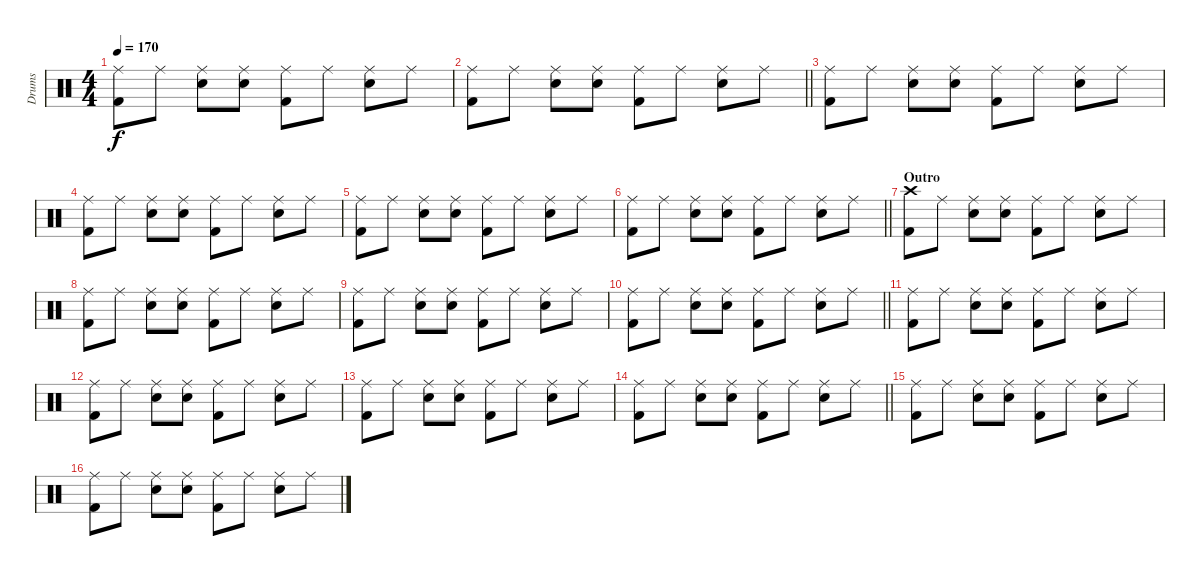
\track ("Drums" "Drums") {instrument percussion}
\staff {score}
\articulation defaults
\ts (4 4)
\tempo 170
\clef neutral
\ks c
("Ride (middle)" "Kick (hit) 2").8{dy f} "Ride (middle)".8 ("Ride (middle)" "Snare (hit) 2").8 ("Ride (middle)" "Snare (hit) 2").8 ("Ride (middle)" "Kick (hit) 2").8 "Ride (middle)".8 ("Ride (middle)" "Snare (hit) 2").8 "Ride (middle)".8 |
\barLineRight lightlight
("Ride (middle)" "Kick (hit) 2").8 "Ride (middle)".8 ("Ride (middle)" "Snare (hit) 2").8 ("Ride (middle)" "Snare (hit) 2").8 ("Ride (middle)" "Kick (hit) 2").8 "Ride (middle)".8 ("Ride (middle)" "Snare (hit) 2").8 "Ride (middle)".8 |
("Ride (middle)" "Kick (hit) 2").8 "Ride (middle)".8 ("Ride (middle)" "Snare (hit) 2").8 ("Ride (middle)" "Snare (hit) 2").8 ("Ride (middle)" "Kick (hit) 2").8 "Ride (middle)".8 ("Ride (middle)" "Snare (hit) 2").8 "Ride (middle)".8 |
("Ride (middle)" "Kick (hit) 2").8 "Ride (middle)".8 ("Ride (middle)" "Snare (hit) 2").8 ("Ride (middle)" "Snare (hit) 2").8 ("Ride (middle)" "Kick (hit) 2").8 "Ride (middle)".8 ("Ride (middle)" "Snare (hit) 2").8 "Ride (middle)".8 |
("Ride (middle)" "Kick (hit) 2").8 "Ride (middle)".8 ("Ride (middle)" "Snare (hit) 2").8 ("Ride (middle)" "Snare (hit) 2").8 ("Ride (middle)" "Kick (hit) 2").8 "Ride (middle)".8 ("Ride (middle)" "Snare (hit) 2").8 "Ride (middle)".8 |
\barLineRight lightlight
("Ride (middle)" "Kick (hit) 2").8 "Ride (middle)".8 ("Ride (middle)" "Snare (hit) 2").8 ("Ride (middle)" "Snare (hit) 2").8 ("Ride (middle)" "Kick (hit) 2").8 "Ride (middle)".8 ("Ride (middle)" "Snare (hit) 2").8 "Ride (middle)".8 |
\section ("" "Outro")
("Crash high (hit)" "Kick (hit) 2").8 "Ride (middle)".8 ("Ride (middle)" "Snare (hit) 2").8 ("Ride (middle)" "Snare (hit) 2").8 ("Ride (middle)" "Kick (hit) 2").8 "Ride (middle)".8 ("Ride (middle)" "Snare (hit) 2").8 "Ride (middle)".8 |
("Ride (middle)" "Kick (hit) 2").8 "Ride (middle)".8 ("Ride (middle)" "Snare (hit) 2").8 ("Ride (middle)" "Snare (hit) 2").8 ("Ride (middle)" "Kick (hit) 2").8 "Ride (middle)".8 ("Ride (middle)" "Snare (hit) 2").8 "Ride (middle)".8 |
("Ride (middle)" "Kick (hit) 2").8 "Ride (middle)".8 ("Ride (middle)" "Snare (hit) 2").8 ("Ride (middle)" "Snare (hit) 2").8 ("Ride (middle)" "Kick (hit) 2").8 "Ride (middle)".8 ("Ride (middle)" "Snare (hit) 2").8 "Ride (middle)".8 |
\barLineRight lightlight
("Ride (middle)" "Kick (hit) 2").8 "Ride (middle)".8 ("Ride (middle)" "Snare (hit) 2").8 ("Ride (middle)" "Snare (hit) 2").8 ("Ride (middle)" "Kick (hit) 2").8 "Ride (middle)".8 ("Ride (middle)" "Snare (hit) 2").8 "Ride (middle)".8 |
("Ride (middle)" "Kick (hit) 2").8 "Ride (middle)".8 ("Ride (middle)" "Snare (hit) 2").8 ("Ride (middle)" "Snare (hit) 2").8 ("Ride (middle)" "Kick (hit) 2").8 "Ride (middle)".8 ("Ride (middle)" "Snare (hit) 2").8 "Ride (middle)".8 |
("Ride (middle)" "Kick (hit) 2").8 "Ride (middle)".8 ("Ride (middle)" "Snare (hit) 2").8 ("Ride (middle)" "Snare (hit) 2").8 ("Ride (middle)" "Kick (hit) 2").8 "Ride (middle)".8 ("Ride (middle)" "Snare (hit) 2").8 "Ride (middle)".8 |
("Ride (middle)" "Kick (hit) 2").8 "Ride (middle)".8 ("Ride (middle)" "Snare (hit) 2").8 ("Ride (middle)" "Snare (hit) 2").8 ("Ride (middle)" "Kick (hit) 2").8 "Ride (middle)".8 ("Ride (middle)" "Snare (hit) 2").8 "Ride (middle)".8 |
\barLineRight lightlight
("Ride (middle)" "Kick (hit) 2").8 "Ride (middle)".8 ("Ride (middle)" "Snare (hit) 2").8 ("Ride (middle)" "Snare (hit) 2").8 ("Ride (middle)" "Kick (hit) 2").8 "Ride (middle)".8 ("Ride (middle)" "Snare (hit) 2").8 "Ride (middle)".8 |
("Ride (middle)" "Kick (hit) 2").8 "Ride (middle)".8 ("Ride (middle)" "Snare (hit) 2").8 ("Ride (middle)" "Snare (hit) 2").8 ("Ride (middle)" "Kick (hit) 2").8 "Ride (middle)".8 ("Ride (middle)" "Snare (hit) 2").8 "Ride (middle)".8 |
("Ride (middle)" "Kick (hit) 2").8 "Ride (middle)".8 ("Ride (middle)" "Snare (hit) 2").8 ("Ride (middle)" "Snare (hit) 2").8 ("Ride (middle)" "Kick (hit) 2").8 "Ride (middle)".8 ("Ride (middle)" "Snare (hit) 2").8 "Ride (middle)".8
